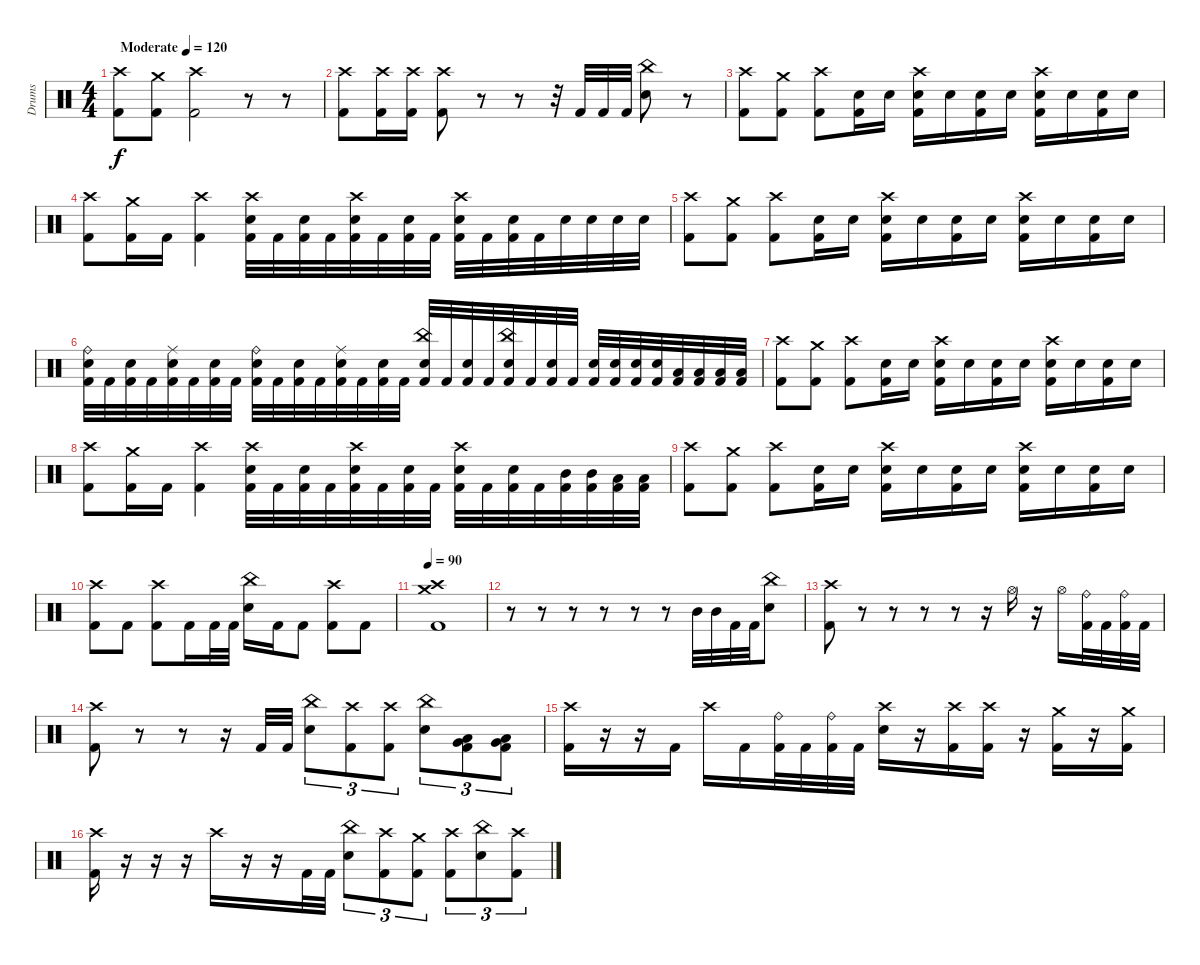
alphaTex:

\track ("Drums" "Drums") {instrument percussion}
\staff {score}
\articulation defaults
\ts (4 4)
\tempo (120 "Moderate")
\clef neutral
\ks c
("Crash high (hit)" "Kick (hit) 2").8{dy f} ("Crash medium (hit)" "Kick (hit) 2").8 ("Crash high (hit)" "Kick (hit) 2").2 r.8 r.8 |
("Crash high (hit)" "Kick (hit) 2").8 ("Crash high (hit)" "Kick (hit) 2").16 ("Crash high (hit)" "Kick (hit) 2").16 ("Crash high (hit)" "Kick (hit) 2").8 r.8 r.8 r.32 "Kick (hit) 2".32 "Kick (hit) 2".32 "Kick (hit) 2".32 ("China (hit)" "Electric Snare (hit)").8 r.8 |
("Crash high (hit)" "Kick (hit) 2").8 ("Crash medium (hit)" "Kick (hit) 2").8 ("Crash high (hit)" "Kick (hit) 2").8 ("Electric Snare (hit)" "Kick (hit) 2").16 "Electric Snare (hit)".16 ("Crash high (hit)" "Electric Snare (hit)" "Kick (hit) 2").16 "Electric Snare (hit)".16 ("Electric Snare (hit)" "Kick (hit) 2").16 "Electric Snare (hit)".16 ("Crash high (hit)" "Electric Snare (hit)" "Kick (hit) 2").16 "Electric Snare (hit)".16 ("Electric Snare (hit)" "Kick (hit) 2").16 "Electric Snare (hit)".16 |
("Crash high (hit)" "Kick (hit) 2").8 ("Crash medium (hit)" "Kick (hit) 2").16 "Kick (hit) 2".16 ("Crash high (hit)" "Kick (hit) 2").4 ("Crash high (hit)" "Electric Snare (hit)" "Kick (hit) 2").32 "Kick (hit) 2".32 ("Electric Snare (hit)" "Kick (hit) 2").32 "Kick (hit) 2".32 ("Crash high (hit)" "Electric Snare (hit)" "Kick (hit) 2").32 "Kick (hit) 2".32 ("Electric Snare (hit)" "Kick (hit) 2").32 "Kick (hit) 2".32 ("Crash high (hit)" "Electric Snare (hit)" "Kick (hit) 2").32 "Kick (hit) 2".32 ("Electric Snare (hit)" "Kick (hit) 2").32 "Kick (hit) 2".32 "Electric Snare (hit)".32 "Electric Snare (hit)".32 "Electric Snare (hit)".32 "Electric Snare (hit)".32 |
("Crash high (hit)" "Kick (hit) 2").8 ("Crash medium (hit)" "Kick (hit) 2").8 ("Crash high (hit)" "Kick (hit) 2").8 ("Electric Snare (hit)" "Kick (hit) 2").16 "Electric Snare (hit)".16 ("Crash high (hit)" "Electric Snare (hit)" "Kick (hit) 2").16 "Electric Snare (hit)".16 ("Electric Snare (hit)" "Kick (hit) 2").16 "Electric Snare (hit)".16 ("Crash high (hit)" "Electric Snare (hit)" "Kick (hit) 2").16 "Electric Snare (hit)".16 ("Electric Snare (hit)" "Kick (hit) 2").16 "Electric Snare (hit)".16 |
("Ride (bell)" "Electric Snare (hit)" "Kick (hit) 2").32 "Kick (hit) 2".32 ("Electric Snare (hit)" "Kick (hit) 2").32 "Kick (hit) 2".32 ("Ride (middle)" "Electric Snare (hit)" "Kick (hit) 2").32 "Kick (hit) 2".32 ("Electric Snare (hit)" "Kick (hit) 2").32 "Kick (hit) 2".32 ("Ride (bell)" "Electric Snare (hit)" "Kick (hit) 2").32 "Kick (hit) 2".32 ("Electric Snare (hit)" "Kick (hit) 2").32 "Kick (hit) 2".32 ("Ride (middle)" "Electric Snare (hit)" "Kick (hit) 2").32 "Kick (hit) 2".32 ("Electric Snare (hit)" "Kick (hit) 2").32 "Kick (hit) 2".32 ("China (hit)" "Electric Snare (hit)" "Kick (hit) 2").32 "Kick (hit) 2".32 ("Electric Snare (hit)" "Kick (hit) 2").32 "Kick (hit) 2".32 ("China (hit)" "Electric Snare (hit)" "Kick (hit) 2").32 "Kick (hit) 2".32 ("Electric Snare (hit)" "Kick (hit) 2").32 "Kick (hit) 2".32 ("Electric Snare (hit)" "Kick (hit) 2").32 ("Electric Snare (hit)" "Kick (hit) 2").32 ("Electric Snare (hit)" "Kick (hit) 2").32 ("Electric Snare (hit)" "Kick (hit) 2").32 ("Low Tom (hit)" "Kick (hit) 2").32 ("Low Tom (hit)" "Kick (hit) 2").32 ("Low Tom (hit)" "Kick (hit) 2").32 ("Low Tom (hit)" "Kick (hit) 2").32 |
("Crash high (hit)" "Kick (hit) 2").8 ("Crash medium (hit)" "Kick (hit) 2").8 ("Crash high (hit)" "Kick (hit) 2").8 ("Electric Snare (hit)" "Kick (hit) 2").16 "Electric Snare (hit)".16 ("Crash high (hit)" "Electric Snare (hit)" "Kick (hit) 2").16 "Electric Snare (hit)".16 ("Electric Snare (hit)" "Kick (hit) 2").16 "Electric Snare (hit)".16 ("Crash high (hit)" "Electric Snare (hit)" "Kick (hit) 2").16 "Electric Snare (hit)".16 ("Electric Snare (hit)" "Kick (hit) 2").16 "Electric Snare (hit)".16 |
("Crash high (hit)" "Kick (hit) 2").8 ("Crash medium (hit)" "Kick (hit) 2").16 "Kick (hit) 2".16 ("Crash high (hit)" "Kick (hit) 2").4 ("Crash high (hit)" "Electric Snare (hit)" "Kick (hit) 2").32 "Kick (hit) 2".32 ("Electric Snare (hit)" "Kick (hit) 2").32 "Kick (hit) 2".32 ("Crash high (hit)" "Electric Snare (hit)" "Kick (hit) 2").32 "Kick (hit) 2".32 ("Electric Snare (hit)" "Kick (hit) 2").32 "Kick (hit) 2".32 ("Crash high (hit)" "Electric Snare (hit)" "Kick (hit) 2").32 "Kick (hit) 2".32 ("Electric Snare (hit)" "Kick (hit) 2").32 "Kick (hit) 2".32 ("Mid Tom (hit)" "Kick (hit) 2").32 ("Mid Tom (hit)" "Kick (hit) 2").32 ("Low Tom (hit)" "Kick (hit) 2").32 ("Low Tom (hit)" "Kick (hit) 2").32 |
("Crash high (hit)" "Kick (hit) 2").8 ("Crash medium (hit)" "Kick (hit) 2").8 ("Crash high (hit)" "Kick (hit) 2").8 ("Electric Snare (hit)" "Kick (hit) 2").16 "Electric Snare (hit)".16 ("Crash high (hit)" "Electric Snare (hit)" "Kick (hit) 2").16 "Electric Snare (hit)".16 ("Electric Snare (hit)" "Kick (hit) 2").16 "Electric Snare (hit)".16 ("Crash high (hit)" "Electric Snare (hit)" "Kick (hit) 2").16 "Electric Snare (hit)".16 ("Electric Snare (hit)" "Kick (hit) 2").16 "Electric Snare (hit)".16 |
("Crash high (hit)" "Kick (hit) 2").8 "Kick (hit) 2".8 ("Crash high (hit)" "Kick (hit) 2").8 "Kick (hit) 2".16 "Kick (hit) 2".32 "Kick (hit) 2".32 ("China (hit)" "Electric Snare (hit)").16 "Kick (hit) 2".16 "Kick (hit) 2".8 ("Crash high (hit)" "Kick (hit) 2").8 "Kick (hit) 2".8 |
\tempo 90
("Crash high (hit)" "Crash medium (hit)" "Kick (hit) 2").1 |
r.8 r.8 r.8 r.8 r.8 r.8 "Mid Tom (hit)".32 "Mid Tom (hit)".32 "Kick (hit) 2".32 "Kick (hit) 2".32 ("China (hit)" "Electric Snare (hit)").8 |
("Crash high (hit)" "Kick (hit) 2").8 r.8 r.8 r.8 r.8 r.16 "Hi-Hat (open)".16 r.16 "Hi-Hat (open)".16 ("Ride (bell)" "Kick (hit) 2").32 "Kick (hit) 2".32 ("Ride (bell)" "Kick (hit) 2").32 "Kick (hit) 2".32 |
("Crash high (hit)" "Kick (hit) 2").8 r.8 r.8 r.16 "Kick (hit) 2".32 "Kick (hit) 2".32 ("China (hit)" "Electric Snare (hit)").8{tu (3 2)} ("Crash high (hit)" "Kick (hit) 2").8{tu (3 2)} ("Crash high (hit)" "Kick (hit) 2").8{tu (3 2)} ("China (hit)" "Electric Snare (hit)").8{tu (3 2)} ("Low Tom (hit)" "Very Low Tom (hit)" "Kick (hit) 2").8{tu (3 2)} ("Very Low Tom (hit)" "Low Floor Tom (hit)" "Kick (hit) 2").8{tu (3 2)} |
("Crash high (hit)" "Kick (hit) 2").16 r.16 r.16 "Kick (hit) 2".16 "Crash high (hit)".16 "Kick (hit) 2".16 ("Ride (bell)" "Kick (hit) 2").32 "Kick (hit) 2".32 ("Ride (bell)" "Kick (hit) 2").32 "Kick (hit) 2".32 ("Crash high (hit)" "Electric Snare (hit)").16 r.16 ("Crash high (hit)" "Kick (hit) 2").16 ("Crash high (hit)" "Kick (hit) 2").16 r.16 ("Crash medium (hit)" "Kick (hit) 2").16 r.16 ("Crash medium (hit)" "Kick (hit) 2").16 |
("Crash high (hit)" "Kick (hit) 2").16 r.16 r.16 r.16 "Crash high (hit)".16 r.16 r.16 "Kick (hit) 2".32 "Kick (hit) 2".32 ("China (hit)" "Electric Snare (hit)").8{tu (3 2)} ("Crash high (hit)" "Kick (hit) 2").8{tu (3 2)} ("Crash medium (hit)" "Kick (hit) 2").8{tu (3 2)} ("Crash high (hit)" "Kick (hit) 2").8{tu (3 2)} ("China (hit)" "Electric Snare (hit)").8{tu (3 2)} ("Crash high (hit)" "Kick (hit) 2").8{tu (3 2)}
